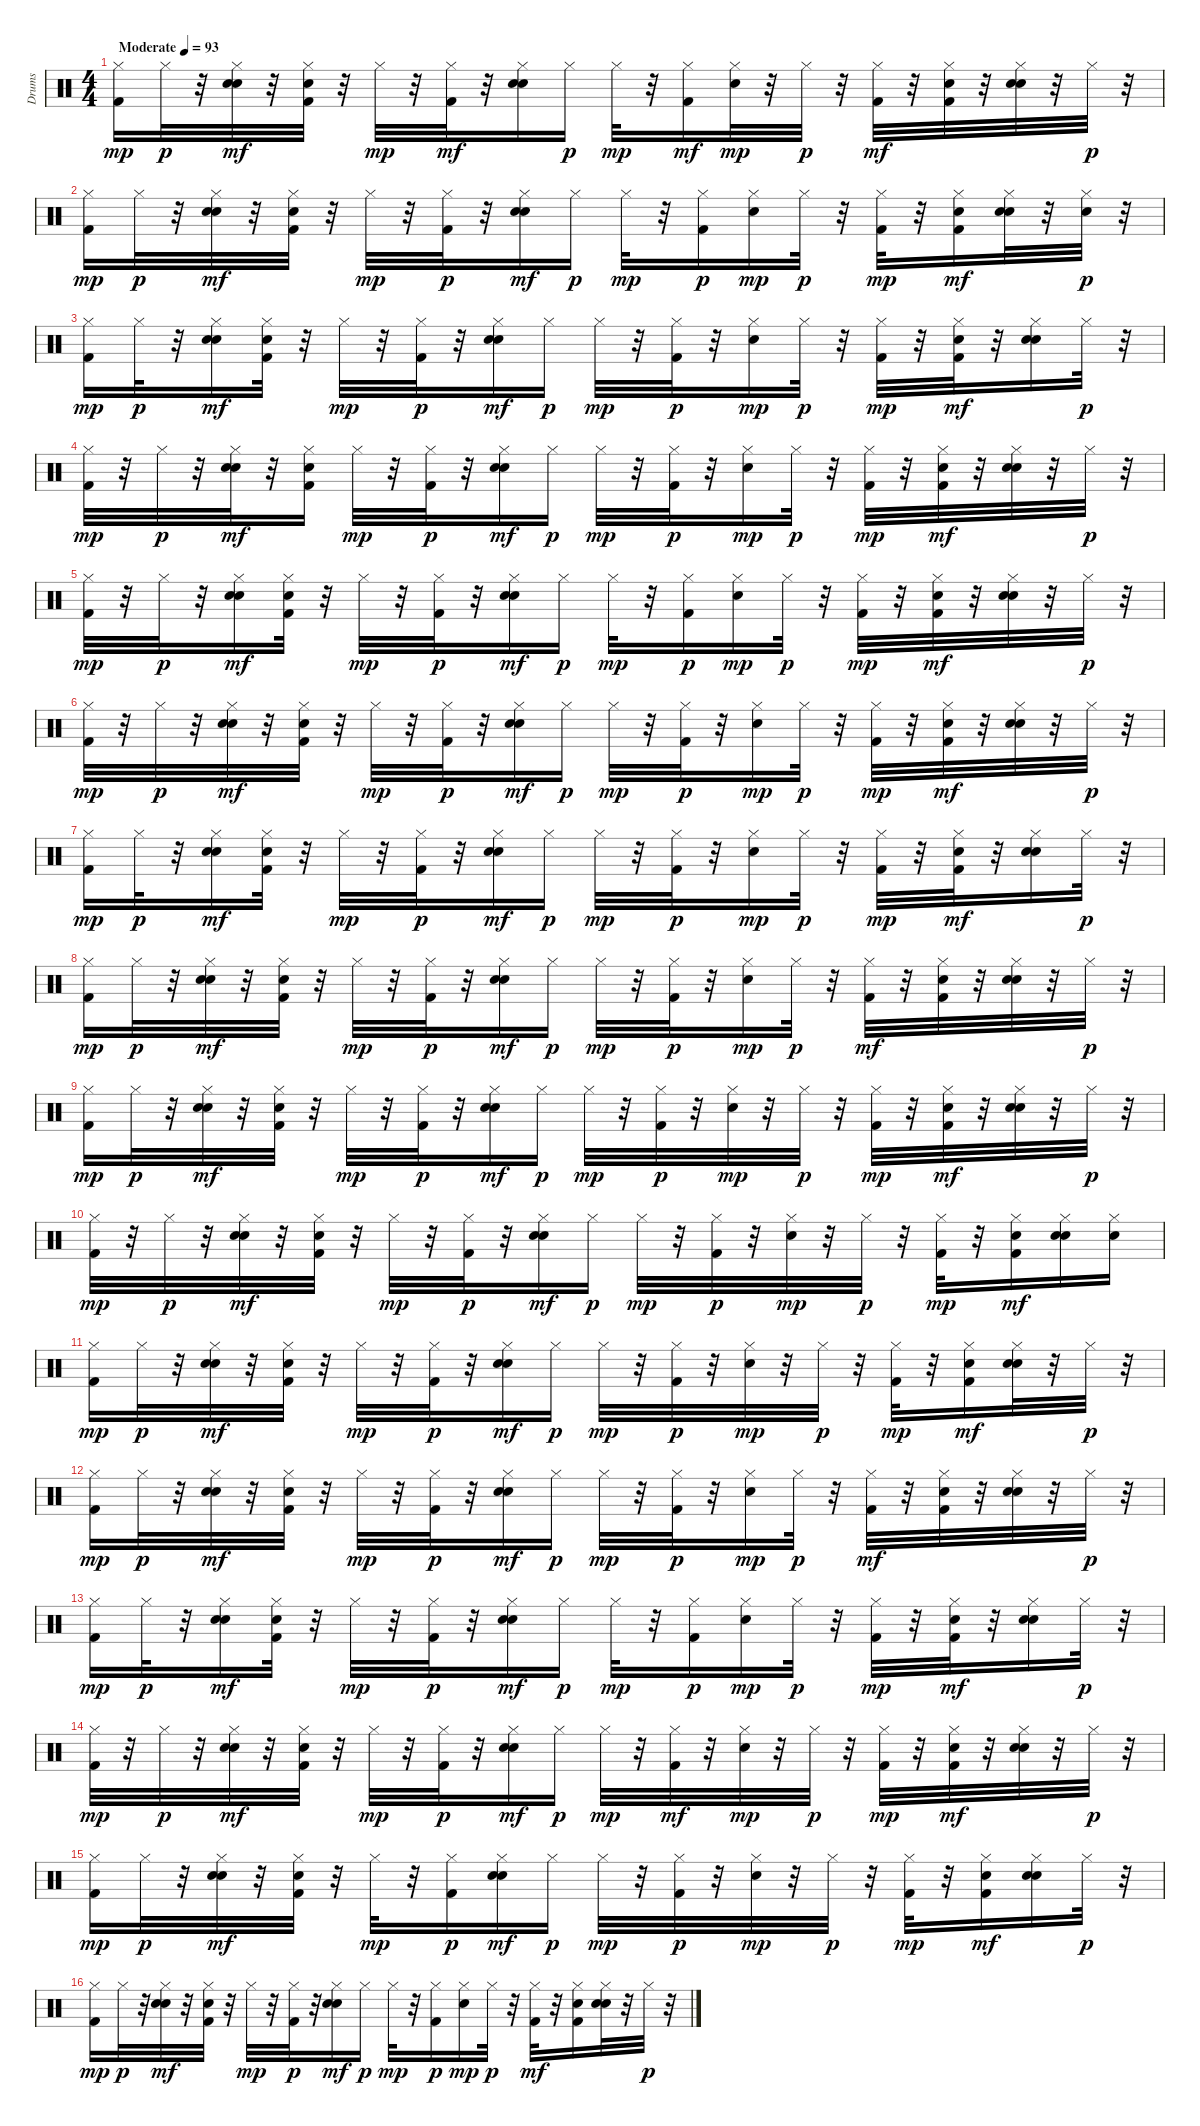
\track ("Drums" "Drums") {instrument percussion}
\staff {score}
\articulation defaults
\ts (4 4)
\tempo (93 "Moderate")
\clef neutral
\ks c
("Kick (hit) 2" "Hi-Hat (closed)").16{dy mp} "Hi-Hat (closed)".32{dy p} r.32 ("Electric Snare (hit)" "Hi-Hat (closed)" "Hand Clap (hit)").32{dy mf} r.32 ("Hi-Hat (closed)" "Hand Clap (hit)" "Kick (hit) 2").32 r.32 "Hi-Hat (closed)".32{dy mp} r.32 ("Hi-Hat (closed)" "Kick (hit) 2").32{dy mf} r.32 ("Electric Snare (hit)" "Hi-Hat (closed)" "Hand Clap (hit)").16 "Hi-Hat (closed)".16{dy p} "Hi-Hat (closed)".32{dy mp} r.32 ("Hi-Hat (closed)" "Kick (hit) 2").16{dy mf} ("Electric Snare (hit)" "Hi-Hat (closed)").32{dy mp} r.32 "Hi-Hat (closed)".32{dy p} r.32 ("Hi-Hat (closed)" "Kick (hit) 2").32{dy mf} r.32 ("Hi-Hat (closed)" "Hand Clap (hit)" "Kick (hit) 2").32 r.32 ("Electric Snare (hit)" "Hi-Hat (closed)" "Hand Clap (hit)").32 r.32 "Hi-Hat (closed)".32{dy p} r.32 |
("Kick (hit) 2" "Hi-Hat (closed)").16{dy mp} "Hi-Hat (closed)".32{dy p} r.32 ("Electric Snare (hit)" "Hi-Hat (closed)" "Hand Clap (hit)").32{dy mf} r.32 ("Kick (hit) 2" "Hi-Hat (closed)" "Hand Clap (hit)").32 r.32 "Hi-Hat (closed)".32{dy mp} r.32 ("Kick (hit) 2" "Hi-Hat (closed)").32{dy p} r.32 ("Electric Snare (hit)" "Hi-Hat (closed)" "Hand Clap (hit)").16{dy mf} "Hi-Hat (closed)".16{dy p} "Hi-Hat (closed)".32{dy mp} r.32 ("Kick (hit) 2" "Hi-Hat (closed)").16{dy p} ("Electric Snare (hit)" "Hi-Hat (closed)").16{dy mp} "Hi-Hat (closed)".32{dy p} r.32 ("Kick (hit) 2" "Hi-Hat (closed)").32{dy mp} r.32 ("Kick (hit) 2" "Hi-Hat (closed)" "Hand Clap (hit)").16{dy mf} ("Electric Snare (hit)" "Hi-Hat (closed)" "Hand Clap (hit)").32 r.32 ("Electric Snare (hit)" "Hi-Hat (closed)").32{dy p} r.32 |
("Kick (hit) 2" "Hi-Hat (closed)").16{dy mp} "Hi-Hat (closed)".32{dy p} r.32 ("Hand Clap (hit)" "Hi-Hat (closed)" "Electric Snare (hit)").16{dy mf} ("Hand Clap (hit)" "Hi-Hat (closed)" "Kick (hit) 2").32 r.32 "Hi-Hat (closed)".32{dy mp} r.32 ("Kick (hit) 2" "Hi-Hat (closed)").32{dy p} r.32 ("Hand Clap (hit)" "Hi-Hat (closed)" "Electric Snare (hit)").16{dy mf} "Hi-Hat (closed)".16{dy p} "Hi-Hat (closed)".32{dy mp} r.32 ("Kick (hit) 2" "Hi-Hat (closed)").32{dy p} r.32 ("Electric Snare (hit)" "Hi-Hat (closed)").16{dy mp} "Hi-Hat (closed)".32{dy p} r.32 ("Kick (hit) 2" "Hi-Hat (closed)").32{dy mp} r.32 ("Hand Clap (hit)" "Hi-Hat (closed)" "Kick (hit) 2").32{dy mf} r.32 ("Hand Clap (hit)" "Hi-Hat (closed)" "Electric Snare (hit)").16 "Hi-Hat (closed)".32{dy p} r.32 |
("Kick (hit) 2" "Hi-Hat (closed)").32{dy mp} r.32 "Hi-Hat (closed)".32{dy p} r.32 ("Hand Clap (hit)" "Hi-Hat (closed)" "Electric Snare (hit)").32{dy mf} r.32 ("Hand Clap (hit)" "Hi-Hat (closed)" "Kick (hit) 2").16 "Hi-Hat (closed)".32{dy mp} r.32 ("Kick (hit) 2" "Hi-Hat (closed)").32{dy p} r.32 ("Hand Clap (hit)" "Hi-Hat (closed)" "Electric Snare (hit)").16{dy mf} "Hi-Hat (closed)".16{dy p} "Hi-Hat (closed)".32{dy mp} r.32 ("Kick (hit) 2" "Hi-Hat (closed)").32{dy p} r.32 ("Electric Snare (hit)" "Hi-Hat (closed)").16{dy mp} "Hi-Hat (closed)".32{dy p} r.32 ("Kick (hit) 2" "Hi-Hat (closed)").32{dy mp} r.32 ("Hand Clap (hit)" "Hi-Hat (closed)" "Kick (hit) 2").32{dy mf} r.32 ("Hand Clap (hit)" "Hi-Hat (closed)" "Electric Snare (hit)").32 r.32 "Hi-Hat (closed)".32{dy p} r.32 |
("Kick (hit) 2" "Hi-Hat (closed)").32{dy mp} r.32 "Hi-Hat (closed)".32{dy p} r.32 ("Hand Clap (hit)" "Hi-Hat (closed)" "Electric Snare (hit)").16{dy mf} ("Hand Clap (hit)" "Hi-Hat (closed)" "Kick (hit) 2").32 r.32 "Hi-Hat (closed)".32{dy mp} r.32 ("Kick (hit) 2" "Hi-Hat (closed)").32{dy p} r.32 ("Hand Clap (hit)" "Hi-Hat (closed)" "Electric Snare (hit)").16{dy mf} "Hi-Hat (closed)".16{dy p} "Hi-Hat (closed)".32{dy mp} r.32 ("Kick (hit) 2" "Hi-Hat (closed)").16{dy p} ("Electric Snare (hit)" "Hi-Hat (closed)").16{dy mp} "Hi-Hat (closed)".32{dy p} r.32 ("Kick (hit) 2" "Hi-Hat (closed)").32{dy mp} r.32 ("Hand Clap (hit)" "Hi-Hat (closed)" "Kick (hit) 2").32{dy mf} r.32 ("Hand Clap (hit)" "Hi-Hat (closed)" "Electric Snare (hit)").32 r.32 "Hi-Hat (closed)".32{dy p} r.32 |
("Kick (hit) 2" "Hi-Hat (closed)").32{dy mp} r.32 "Hi-Hat (closed)".32{dy p} r.32 ("Hand Clap (hit)" "Hi-Hat (closed)" "Electric Snare (hit)").32{dy mf} r.32 ("Hand Clap (hit)" "Hi-Hat (closed)" "Kick (hit) 2").32 r.32 "Hi-Hat (closed)".32{dy mp} r.32 ("Kick (hit) 2" "Hi-Hat (closed)").32{dy p} r.32 ("Hand Clap (hit)" "Hi-Hat (closed)" "Electric Snare (hit)").16{dy mf} "Hi-Hat (closed)".16{dy p} "Hi-Hat (closed)".32{dy mp} r.32 ("Kick (hit) 2" "Hi-Hat (closed)").32{dy p} r.32 ("Electric Snare (hit)" "Hi-Hat (closed)").16{dy mp} "Hi-Hat (closed)".32{dy p} r.32 ("Kick (hit) 2" "Hi-Hat (closed)").32{dy mp} r.32 ("Hand Clap (hit)" "Hi-Hat (closed)" "Kick (hit) 2").32{dy mf} r.32 ("Hand Clap (hit)" "Hi-Hat (closed)" "Electric Snare (hit)").32 r.32 "Hi-Hat (closed)".32{dy p} r.32 |
("Kick (hit) 2" "Hi-Hat (closed)").16{dy mp} "Hi-Hat (closed)".32{dy p} r.32 ("Electric Snare (hit)" "Hi-Hat (closed)" "Hand Clap (hit)").16{dy mf} ("Hand Clap (hit)" "Hi-Hat (closed)" "Kick (hit) 2").32 r.32 "Hi-Hat (closed)".32{dy mp} r.32 ("Kick (hit) 2" "Hi-Hat (closed)").32{dy p} r.32 ("Hand Clap (hit)" "Hi-Hat (closed)" "Electric Snare (hit)").16{dy mf} "Hi-Hat (closed)".16{dy p} "Hi-Hat (closed)".32{dy mp} r.32 ("Kick (hit) 2" "Hi-Hat (closed)").32{dy p} r.32 ("Electric Snare (hit)" "Hi-Hat (closed)").16{dy mp} "Hi-Hat (closed)".32{dy p} r.32 ("Kick (hit) 2" "Hi-Hat (closed)").32{dy mp} r.32 ("Hand Clap (hit)" "Hi-Hat (closed)" "Kick (hit) 2").32{dy mf} r.32 ("Hand Clap (hit)" "Hi-Hat (closed)" "Electric Snare (hit)").16 "Hi-Hat (closed)".32{dy p} r.32 |
("Kick (hit) 2" "Hi-Hat (closed)").16{dy mp} "Hi-Hat (closed)".32{dy p} r.32 ("Electric Snare (hit)" "Hi-Hat (closed)" "Hand Clap (hit)").32{dy mf} r.32 ("Hand Clap (hit)" "Hi-Hat (closed)" "Kick (hit) 2").32 r.32 "Hi-Hat (closed)".32{dy mp} r.32 ("Kick (hit) 2" "Hi-Hat (closed)").32{dy p} r.32 ("Hand Clap (hit)" "Hi-Hat (closed)" "Electric Snare (hit)").16{dy mf} "Hi-Hat (closed)".16{dy p} "Hi-Hat (closed)".32{dy mp} r.32 ("Kick (hit) 2" "Hi-Hat (closed)").32{dy p} r.32 ("Electric Snare (hit)" "Hi-Hat (closed)").16{dy mp} "Hi-Hat (closed)".32{dy p} r.32 ("Hi-Hat (closed)" "Kick (hit) 2").32{dy mf} r.32 ("Hand Clap (hit)" "Hi-Hat (closed)" "Kick (hit) 2").32 r.32 ("Hand Clap (hit)" "Hi-Hat (closed)" "Electric Snare (hit)").32 r.32 "Hi-Hat (closed)".32{dy p} r.32 |
("Kick (hit) 2" "Hi-Hat (closed)").16{dy mp} "Hi-Hat (closed)".32{dy p} r.32 ("Electric Snare (hit)" "Hi-Hat (closed)" "Hand Clap (hit)").32{dy mf} r.32 ("Hand Clap (hit)" "Hi-Hat (closed)" "Kick (hit) 2").32 r.32 "Hi-Hat (closed)".32{dy mp} r.32 ("Kick (hit) 2" "Hi-Hat (closed)").32{dy p} r.32 ("Hand Clap (hit)" "Hi-Hat (closed)" "Electric Snare (hit)").16{dy mf} "Hi-Hat (closed)".16{dy p} "Hi-Hat (closed)".32{dy mp} r.32 ("Kick (hit) 2" "Hi-Hat (closed)").32{dy p} r.32 ("Electric Snare (hit)" "Hi-Hat (closed)").32{dy mp} r.32 "Hi-Hat (closed)".32{dy p} r.32 ("Kick (hit) 2" "Hi-Hat (closed)").32{dy mp} r.32 ("Hand Clap (hit)" "Hi-Hat (closed)" "Kick (hit) 2").32{dy mf} r.32 ("Hand Clap (hit)" "Hi-Hat (closed)" "Electric Snare (hit)").32 r.32 "Hi-Hat (closed)".32{dy p} r.32 |
("Kick (hit) 2" "Hi-Hat (closed)").32{dy mp} r.32 "Hi-Hat (closed)".32{dy p} r.32 ("Electric Snare (hit)" "Hi-Hat (closed)" "Hand Clap (hit)").32{dy mf} r.32 ("Hand Clap (hit)" "Hi-Hat (closed)" "Kick (hit) 2").32 r.32 "Hi-Hat (closed)".32{dy mp} r.32 ("Kick (hit) 2" "Hi-Hat (closed)").32{dy p} r.32 ("Hand Clap (hit)" "Hi-Hat (closed)" "Electric Snare (hit)").16{dy mf} "Hi-Hat (closed)".16{dy p} "Hi-Hat (closed)".32{dy mp} r.32 ("Kick (hit) 2" "Hi-Hat (closed)").32{dy p} r.32 ("Electric Snare (hit)" "Hi-Hat (closed)").32{dy mp} r.32 "Hi-Hat (closed)".32{dy p} r.32 ("Kick (hit) 2" "Hi-Hat (closed)").32{dy mp} r.32 ("Kick (hit) 2" "Hi-Hat (closed)" "Hand Clap (hit)").16{dy mf} ("Electric Snare (hit)" "Hi-Hat (closed)" "Hand Clap (hit)").16 ("Hi-Hat (closed)" "Electric Snare (hit)").16 |
("Kick (hit) 2" "Hi-Hat (closed)").16{dy mp} "Hi-Hat (closed)".32{dy p} r.32 ("Electric Snare (hit)" "Hi-Hat (closed)" "Hand Clap (hit)").32{dy mf} r.32 ("Hand Clap (hit)" "Hi-Hat (closed)" "Kick (hit) 2").32 r.32 "Hi-Hat (closed)".32{dy mp} r.32 ("Kick (hit) 2" "Hi-Hat (closed)").32{dy p} r.32 ("Hand Clap (hit)" "Hi-Hat (closed)" "Electric Snare (hit)").16{dy mf} "Hi-Hat (closed)".16{dy p} "Hi-Hat (closed)".32{dy mp} r.32 ("Kick (hit) 2" "Hi-Hat (closed)").32{dy p} r.32 ("Electric Snare (hit)" "Hi-Hat (closed)").32{dy mp} r.32 "Hi-Hat (closed)".32{dy p} r.32 ("Kick (hit) 2" "Hi-Hat (closed)").32{dy mp} r.32 ("Hand Clap (hit)" "Hi-Hat (closed)" "Kick (hit) 2").16{dy mf} ("Hand Clap (hit)" "Hi-Hat (closed)" "Electric Snare (hit)").32 r.32 "Hi-Hat (closed)".32{dy p} r.32 |
("Kick (hit) 2" "Hi-Hat (closed)").16{dy mp} "Hi-Hat (closed)".32{dy p} r.32 ("Electric Snare (hit)" "Hi-Hat (closed)" "Hand Clap (hit)").32{dy mf} r.32 ("Hand Clap (hit)" "Hi-Hat (closed)" "Kick (hit) 2").32 r.32 "Hi-Hat (closed)".32{dy mp} r.32 ("Kick (hit) 2" "Hi-Hat (closed)").32{dy p} r.32 ("Hand Clap (hit)" "Hi-Hat (closed)" "Electric Snare (hit)").16{dy mf} "Hi-Hat (closed)".16{dy p} "Hi-Hat (closed)".32{dy mp} r.32 ("Kick (hit) 2" "Hi-Hat (closed)").32{dy p} r.32 ("Electric Snare (hit)" "Hi-Hat (closed)").16{dy mp} "Hi-Hat (closed)".32{dy p} r.32 ("Hi-Hat (closed)" "Kick (hit) 2").32{dy mf} r.32 ("Hand Clap (hit)" "Hi-Hat (closed)" "Kick (hit) 2").32 r.32 ("Hand Clap (hit)" "Hi-Hat (closed)" "Electric Snare (hit)").32 r.32 "Hi-Hat (closed)".32{dy p} r.32 |
("Kick (hit) 2" "Hi-Hat (closed)").16{dy mp} "Hi-Hat (closed)".32{dy p} r.32 ("Electric Snare (hit)" "Hi-Hat (closed)" "Hand Clap (hit)").16{dy mf} ("Hand Clap (hit)" "Hi-Hat (closed)" "Kick (hit) 2").32 r.32 "Hi-Hat (closed)".32{dy mp} r.32 ("Kick (hit) 2" "Hi-Hat (closed)").32{dy p} r.32 ("Hand Clap (hit)" "Hi-Hat (closed)" "Electric Snare (hit)").16{dy mf} "Hi-Hat (closed)".16{dy p} "Hi-Hat (closed)".32{dy mp} r.32 ("Kick (hit) 2" "Hi-Hat (closed)").16{dy p} ("Electric Snare (hit)" "Hi-Hat (closed)").16{dy mp} "Hi-Hat (closed)".32{dy p} r.32 ("Kick (hit) 2" "Hi-Hat (closed)").32{dy mp} r.32 ("Hand Clap (hit)" "Hi-Hat (closed)" "Kick (hit) 2").32{dy mf} r.32 ("Hand Clap (hit)" "Hi-Hat (closed)" "Electric Snare (hit)").16 "Hi-Hat (closed)".32{dy p} r.32 |
("Kick (hit) 2" "Hi-Hat (closed)").32{dy mp} r.32 "Hi-Hat (closed)".32{dy p} r.32 ("Electric Snare (hit)" "Hi-Hat (closed)" "Hand Clap (hit)").32{dy mf} r.32 ("Hi-Hat (closed)" "Hand Clap (hit)" "Kick (hit) 2").32 r.32 "Hi-Hat (closed)".32{dy mp} r.32 ("Kick (hit) 2" "Hi-Hat (closed)").32{dy p} r.32 ("Hi-Hat (closed)" "Hand Clap (hit)" "Electric Snare (hit)").16{dy mf} "Hi-Hat (closed)".16{dy p} "Hi-Hat (closed)".32{dy mp} r.32 ("Hi-Hat (closed)" "Kick (hit) 2").32{dy mf} r.32 ("Electric Snare (hit)" "Hi-Hat (closed)").32{dy mp} r.32 "Hi-Hat (closed)".32{dy p} r.32 ("Kick (hit) 2" "Hi-Hat (closed)").32{dy mp} r.32 ("Kick (hit) 2" "Hi-Hat (closed)" "Hand Clap (hit)").32{dy mf} r.32 ("Electric Snare (hit)" "Hi-Hat (closed)" "Hand Clap (hit)").32 r.32 "Hi-Hat (closed)".32{dy p} r.32 |
("Kick (hit) 2" "Hi-Hat (closed)").16{dy mp} "Hi-Hat (closed)".32{dy p} r.32 ("Electric Snare (hit)" "Hi-Hat (closed)" "Hand Clap (hit)").32{dy mf} r.32 ("Hand Clap (hit)" "Hi-Hat (closed)" "Kick (hit) 2").32 r.32 "Hi-Hat (closed)".32{dy mp} r.32 ("Kick (hit) 2" "Hi-Hat (closed)").16{dy p} ("Hand Clap (hit)" "Hi-Hat (closed)" "Electric Snare (hit)").16{dy mf} "Hi-Hat (closed)".16{dy p} "Hi-Hat (closed)".32{dy mp} r.32 ("Kick (hit) 2" "Hi-Hat (closed)").32{dy p} r.32 ("Electric Snare (hit)" "Hi-Hat (closed)").32{dy mp} r.32 "Hi-Hat (closed)".32{dy p} r.32 ("Kick (hit) 2" "Hi-Hat (closed)").32{dy mp} r.32 ("Hand Clap (hit)" "Hi-Hat (closed)" "Kick (hit) 2").16{dy mf} ("Hand Clap (hit)" "Hi-Hat (closed)" "Electric Snare (hit)").16 "Hi-Hat (closed)".32{dy p} r.32 |
("Kick (hit) 2" "Hi-Hat (closed)").16{dy mp} "Hi-Hat (closed)".32{dy p} r.32 ("Electric Snare (hit)" "Hi-Hat (closed)" "Hand Clap (hit)").32{dy mf} r.32 ("Hand Clap (hit)" "Hi-Hat (closed)" "Kick (hit) 2").32 r.32 "Hi-Hat (closed)".32{dy mp} r.32 ("Kick (hit) 2" "Hi-Hat (closed)").32{dy p} r.32 ("Hand Clap (hit)" "Hi-Hat (closed)" "Electric Snare (hit)").16{dy mf} "Hi-Hat (closed)".16{dy p} "Hi-Hat (closed)".32{dy mp} r.32 ("Kick (hit) 2" "Hi-Hat (closed)").16{dy p} ("Electric Snare (hit)" "Hi-Hat (closed)").16{dy mp} "Hi-Hat (closed)".32{dy p} r.32 ("Hi-Hat (closed)" "Kick (hit) 2").32{dy mf} r.32 ("Hand Clap (hit)" "Hi-Hat (closed)" "Kick (hit) 2").16 ("Hand Clap (hit)" "Hi-Hat (closed)" "Electric Snare (hit)").32 r.32 "Hi-Hat (closed)".32{dy p} r.32
